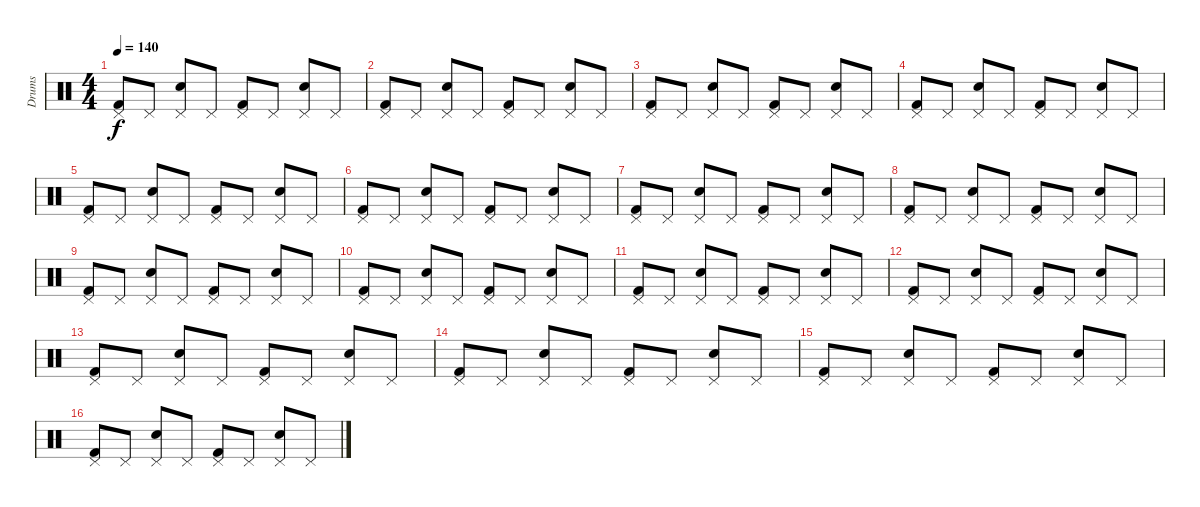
\track ("Drums" "Drums") {instrument percussion}
\staff {score}
\articulation defaults
\ts (4 4)
\tempo 140
\clef neutral
\ks c
("Kick (hit) 2" "Pedal Hi-Hat (hit)").8{dy f} "Pedal Hi-Hat (hit)".8 ("Snare (hit) 2" "Pedal Hi-Hat (hit)").8 "Pedal Hi-Hat (hit)".8 ("Kick (hit) 2" "Pedal Hi-Hat (hit)").8 "Pedal Hi-Hat (hit)".8 ("Snare (hit) 2" "Pedal Hi-Hat (hit)").8 "Pedal Hi-Hat (hit)".8 |
("Kick (hit) 2" "Pedal Hi-Hat (hit)").8 "Pedal Hi-Hat (hit)".8 ("Snare (hit) 2" "Pedal Hi-Hat (hit)").8 "Pedal Hi-Hat (hit)".8 ("Kick (hit) 2" "Pedal Hi-Hat (hit)").8 "Pedal Hi-Hat (hit)".8 ("Snare (hit) 2" "Pedal Hi-Hat (hit)").8 "Pedal Hi-Hat (hit)".8 |
("Kick (hit) 2" "Pedal Hi-Hat (hit)").8 "Pedal Hi-Hat (hit)".8 ("Snare (hit) 2" "Pedal Hi-Hat (hit)").8 "Pedal Hi-Hat (hit)".8 ("Kick (hit) 2" "Pedal Hi-Hat (hit)").8 "Pedal Hi-Hat (hit)".8 ("Snare (hit) 2" "Pedal Hi-Hat (hit)").8 "Pedal Hi-Hat (hit)".8 |
("Kick (hit) 2" "Pedal Hi-Hat (hit)").8 "Pedal Hi-Hat (hit)".8 ("Snare (hit) 2" "Pedal Hi-Hat (hit)").8 "Pedal Hi-Hat (hit)".8 ("Kick (hit) 2" "Pedal Hi-Hat (hit)").8 "Pedal Hi-Hat (hit)".8 ("Snare (hit) 2" "Pedal Hi-Hat (hit)").8 "Pedal Hi-Hat (hit)".8 |
("Kick (hit) 2" "Pedal Hi-Hat (hit)").8 "Pedal Hi-Hat (hit)".8 ("Snare (hit) 2" "Pedal Hi-Hat (hit)").8 "Pedal Hi-Hat (hit)".8 ("Kick (hit) 2" "Pedal Hi-Hat (hit)").8 "Pedal Hi-Hat (hit)".8 ("Snare (hit) 2" "Pedal Hi-Hat (hit)").8 "Pedal Hi-Hat (hit)".8 |
("Kick (hit) 2" "Pedal Hi-Hat (hit)").8 "Pedal Hi-Hat (hit)".8 ("Snare (hit) 2" "Pedal Hi-Hat (hit)").8 "Pedal Hi-Hat (hit)".8 ("Kick (hit) 2" "Pedal Hi-Hat (hit)").8 "Pedal Hi-Hat (hit)".8 ("Snare (hit) 2" "Pedal Hi-Hat (hit)").8 "Pedal Hi-Hat (hit)".8 |
("Kick (hit) 2" "Pedal Hi-Hat (hit)").8 "Pedal Hi-Hat (hit)".8 ("Snare (hit) 2" "Pedal Hi-Hat (hit)").8 "Pedal Hi-Hat (hit)".8 ("Kick (hit) 2" "Pedal Hi-Hat (hit)").8 "Pedal Hi-Hat (hit)".8 ("Snare (hit) 2" "Pedal Hi-Hat (hit)").8 "Pedal Hi-Hat (hit)".8 |
("Kick (hit) 2" "Pedal Hi-Hat (hit)").8 "Pedal Hi-Hat (hit)".8 ("Snare (hit) 2" "Pedal Hi-Hat (hit)").8 "Pedal Hi-Hat (hit)".8 ("Kick (hit) 2" "Pedal Hi-Hat (hit)").8 "Pedal Hi-Hat (hit)".8 ("Snare (hit) 2" "Pedal Hi-Hat (hit)").8 "Pedal Hi-Hat (hit)".8 |
("Kick (hit) 2" "Pedal Hi-Hat (hit)").8 "Pedal Hi-Hat (hit)".8 ("Snare (hit) 2" "Pedal Hi-Hat (hit)").8 "Pedal Hi-Hat (hit)".8 ("Kick (hit) 2" "Pedal Hi-Hat (hit)").8 "Pedal Hi-Hat (hit)".8 ("Snare (hit) 2" "Pedal Hi-Hat (hit)").8 "Pedal Hi-Hat (hit)".8 |
("Kick (hit) 2" "Pedal Hi-Hat (hit)").8 "Pedal Hi-Hat (hit)".8 ("Snare (hit) 2" "Pedal Hi-Hat (hit)").8 "Pedal Hi-Hat (hit)".8 ("Kick (hit) 2" "Pedal Hi-Hat (hit)").8 "Pedal Hi-Hat (hit)".8 ("Snare (hit) 2" "Pedal Hi-Hat (hit)").8 "Pedal Hi-Hat (hit)".8 |
("Kick (hit) 2" "Pedal Hi-Hat (hit)").8 "Pedal Hi-Hat (hit)".8 ("Snare (hit) 2" "Pedal Hi-Hat (hit)").8 "Pedal Hi-Hat (hit)".8 ("Kick (hit) 2" "Pedal Hi-Hat (hit)").8 "Pedal Hi-Hat (hit)".8 ("Snare (hit) 2" "Pedal Hi-Hat (hit)").8 "Pedal Hi-Hat (hit)".8 |
("Kick (hit) 2" "Pedal Hi-Hat (hit)").8 "Pedal Hi-Hat (hit)".8 ("Snare (hit) 2" "Pedal Hi-Hat (hit)").8 "Pedal Hi-Hat (hit)".8 ("Kick (hit) 2" "Pedal Hi-Hat (hit)").8 "Pedal Hi-Hat (hit)".8 ("Snare (hit) 2" "Pedal Hi-Hat (hit)").8 "Pedal Hi-Hat (hit)".8 |
("Kick (hit) 2" "Pedal Hi-Hat (hit)").8 "Pedal Hi-Hat (hit)".8 ("Snare (hit) 2" "Pedal Hi-Hat (hit)").8 "Pedal Hi-Hat (hit)".8 ("Kick (hit) 2" "Pedal Hi-Hat (hit)").8 "Pedal Hi-Hat (hit)".8 ("Snare (hit) 2" "Pedal Hi-Hat (hit)").8 "Pedal Hi-Hat (hit)".8 |
("Kick (hit) 2" "Pedal Hi-Hat (hit)").8 "Pedal Hi-Hat (hit)".8 ("Snare (hit) 2" "Pedal Hi-Hat (hit)").8 "Pedal Hi-Hat (hit)".8 ("Kick (hit) 2" "Pedal Hi-Hat (hit)").8 "Pedal Hi-Hat (hit)".8 ("Snare (hit) 2" "Pedal Hi-Hat (hit)").8 "Pedal Hi-Hat (hit)".8 |
("Kick (hit) 2" "Pedal Hi-Hat (hit)").8 "Pedal Hi-Hat (hit)".8 ("Snare (hit) 2" "Pedal Hi-Hat (hit)").8 "Pedal Hi-Hat (hit)".8 ("Kick (hit) 2" "Pedal Hi-Hat (hit)").8 "Pedal Hi-Hat (hit)".8 ("Snare (hit) 2" "Pedal Hi-Hat (hit)").8 "Pedal Hi-Hat (hit)".8 |
("Kick (hit) 2" "Pedal Hi-Hat (hit)").8 "Pedal Hi-Hat (hit)".8 ("Snare (hit) 2" "Pedal Hi-Hat (hit)").8 "Pedal Hi-Hat (hit)".8 ("Kick (hit) 2" "Pedal Hi-Hat (hit)").8 "Pedal Hi-Hat (hit)".8 ("Snare (hit) 2" "Pedal Hi-Hat (hit)").8 "Pedal Hi-Hat (hit)".8
